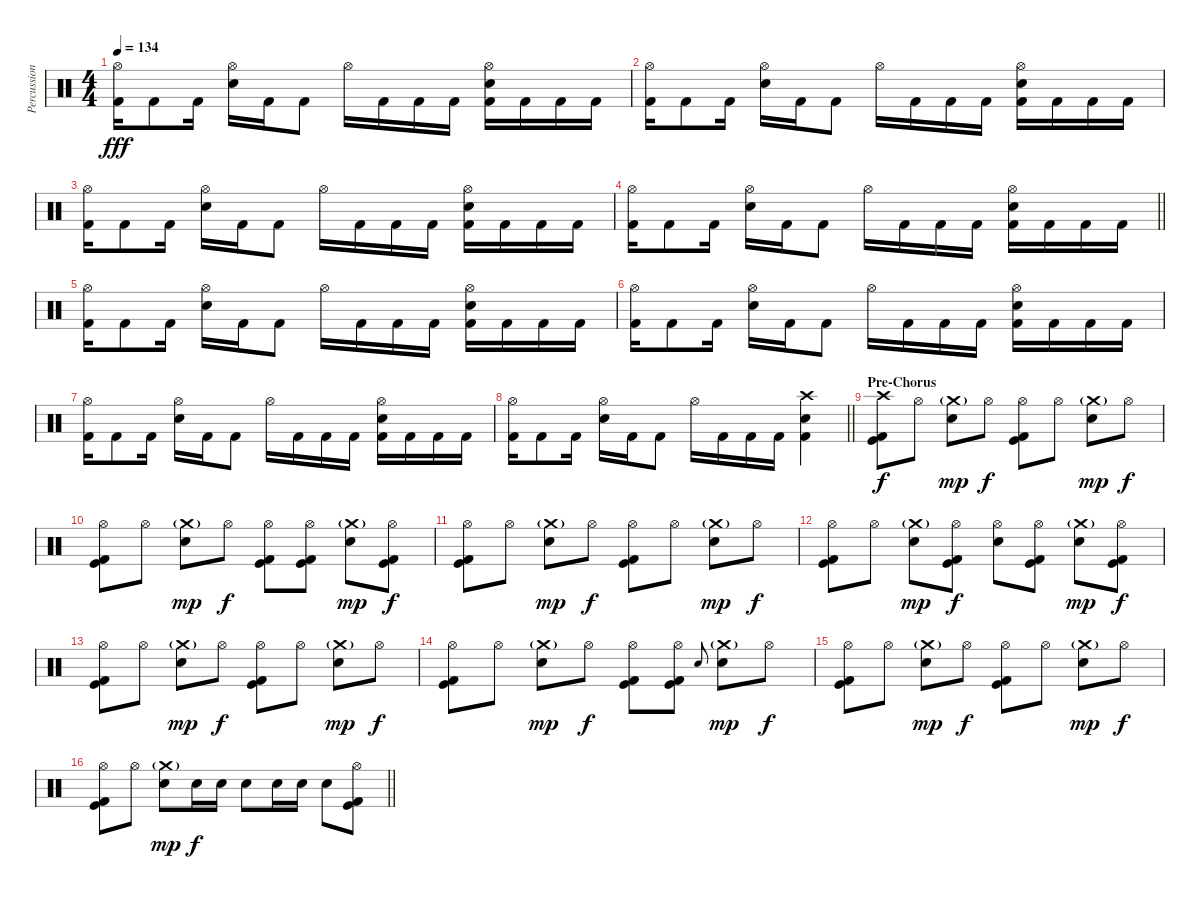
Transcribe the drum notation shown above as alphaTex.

\track ("Percussion" "Percussion") {instrument percussion}
\staff {score}
\articulation defaults
\ts (4 4)
\tempo 134
\clef neutral
\ks c
("Hi-Hat (open)" "Kick (hit) 2").16{dy fff} "Kick (hit) 2".8 "Kick (hit) 2".16 ("Hi-Hat (open)" "Electric Snare (hit)").16 "Kick (hit) 2".16 "Kick (hit) 2".8 "Hi-Hat (open)".16 "Kick (hit) 2".16 "Kick (hit) 2".16 "Kick (hit) 2".16 ("Hi-Hat (open)" "Electric Snare (hit)" "Kick (hit) 2").16 "Kick (hit) 2".16 "Kick (hit) 2".16 "Kick (hit) 2".16 |
("Hi-Hat (open)" "Kick (hit) 2").16 "Kick (hit) 2".8 "Kick (hit) 2".16 ("Hi-Hat (open)" "Electric Snare (hit)").16 "Kick (hit) 2".16 "Kick (hit) 2".8 "Hi-Hat (open)".16 "Kick (hit) 2".16 "Kick (hit) 2".16 "Kick (hit) 2".16 ("Hi-Hat (open)" "Electric Snare (hit)" "Kick (hit) 2").16 "Kick (hit) 2".16 "Kick (hit) 2".16 "Kick (hit) 2".16 |
("Hi-Hat (open)" "Kick (hit) 2").16 "Kick (hit) 2".8 "Kick (hit) 2".16 ("Hi-Hat (open)" "Electric Snare (hit)").16 "Kick (hit) 2".16 "Kick (hit) 2".8 "Hi-Hat (open)".16 "Kick (hit) 2".16 "Kick (hit) 2".16 "Kick (hit) 2".16 ("Hi-Hat (open)" "Electric Snare (hit)" "Kick (hit) 2").16 "Kick (hit) 2".16 "Kick (hit) 2".16 "Kick (hit) 2".16 |
\barLineRight lightlight
("Hi-Hat (open)" "Kick (hit) 2").16 "Kick (hit) 2".8 "Kick (hit) 2".16 ("Hi-Hat (open)" "Electric Snare (hit)").16 "Kick (hit) 2".16 "Kick (hit) 2".8 "Hi-Hat (open)".16 "Kick (hit) 2".16 "Kick (hit) 2".16 "Kick (hit) 2".16 ("Hi-Hat (open)" "Electric Snare (hit)" "Kick (hit) 2").16 "Kick (hit) 2".16 "Kick (hit) 2".16 "Kick (hit) 2".16 |
("Hi-Hat (open)" "Kick (hit) 2").16 "Kick (hit) 2".8 "Kick (hit) 2".16 ("Hi-Hat (open)" "Electric Snare (hit)").16 "Kick (hit) 2".16 "Kick (hit) 2".8 "Hi-Hat (open)".16 "Kick (hit) 2".16 "Kick (hit) 2".16 "Kick (hit) 2".16 ("Hi-Hat (open)" "Electric Snare (hit)" "Kick (hit) 2").16 "Kick (hit) 2".16 "Kick (hit) 2".16 "Kick (hit) 2".16 |
("Hi-Hat (open)" "Kick (hit) 2").16 "Kick (hit) 2".8 "Kick (hit) 2".16 ("Hi-Hat (open)" "Electric Snare (hit)").16 "Kick (hit) 2".16 "Kick (hit) 2".8 "Hi-Hat (open)".16 "Kick (hit) 2".16 "Kick (hit) 2".16 "Kick (hit) 2".16 ("Hi-Hat (open)" "Electric Snare (hit)" "Kick (hit) 2").16 "Kick (hit) 2".16 "Kick (hit) 2".16 "Kick (hit) 2".16 |
("Hi-Hat (open)" "Kick (hit) 2").16 "Kick (hit) 2".8 "Kick (hit) 2".16 ("Hi-Hat (open)" "Electric Snare (hit)").16 "Kick (hit) 2".16 "Kick (hit) 2".8 "Hi-Hat (open)".16 "Kick (hit) 2".16 "Kick (hit) 2".16 "Kick (hit) 2".16 ("Hi-Hat (open)" "Electric Snare (hit)" "Kick (hit) 2").16 "Kick (hit) 2".16 "Kick (hit) 2".16 "Kick (hit) 2".16 |
\barLineRight lightlight
("Hi-Hat (open)" "Kick (hit) 2").16 "Kick (hit) 2".8 "Kick (hit) 2".16 ("Hi-Hat (open)" "Electric Snare (hit)").16 "Kick (hit) 2".16 "Kick (hit) 2".8 "Hi-Hat (open)".16 "Kick (hit) 2".16 "Kick (hit) 2".16 "Kick (hit) 2".16 ("Crash high (hit)" "Electric Snare (hit)" "Kick (hit) 2").4 |
\section ("" "Pre-Chorus")
("Crash high (hit)" "Kick (hit)" "Kick (hit) 2").8{dy f} "Hi-Hat (open)".8 ("Crash medium (hit)"{g} "Electric Snare (hit)").8{dy mp} "Hi-Hat (open)".8{dy f} ("Hi-Hat (open)" "Kick (hit)" "Kick (hit) 2").8 "Hi-Hat (open)".8 ("Crash medium (hit)"{g} "Electric Snare (hit)").8{dy mp} "Hi-Hat (open)".8{dy f} |
("Hi-Hat (open)" "Kick (hit)" "Kick (hit) 2").8 "Hi-Hat (open)".8 ("Crash medium (hit)"{g} "Electric Snare (hit)").8{dy mp} "Hi-Hat (open)".8{dy f} ("Hi-Hat (open)" "Kick (hit)" "Kick (hit) 2").8 ("Hi-Hat (open)" "Kick (hit)" "Kick (hit) 2").8 ("Crash medium (hit)"{g} "Electric Snare (hit)").8{dy mp} ("Hi-Hat (open)" "Kick (hit)" "Kick (hit) 2").8{dy f} |
("Hi-Hat (open)" "Kick (hit)" "Kick (hit) 2").8 "Hi-Hat (open)".8 ("Crash medium (hit)"{g} "Electric Snare (hit)").8{dy mp} "Hi-Hat (open)".8{dy f} ("Hi-Hat (open)" "Kick (hit)" "Kick (hit) 2").8 "Hi-Hat (open)".8 ("Crash medium (hit)"{g} "Electric Snare (hit)").8{dy mp} "Hi-Hat (open)".8{dy f} |
("Hi-Hat (open)" "Kick (hit)" "Kick (hit) 2").8 "Hi-Hat (open)".8 ("Crash medium (hit)"{g} "Electric Snare (hit)").8{dy mp} ("Hi-Hat (open)" "Kick (hit)" "Kick (hit) 2").8{dy f} ("Hi-Hat (open)" "Electric Snare (hit)").8 ("Hi-Hat (open)" "Kick (hit)" "Kick (hit) 2").8 ("Crash medium (hit)"{g} "Electric Snare (hit)").8{dy mp} ("Hi-Hat (open)" "Kick (hit)" "Kick (hit) 2").8{dy f} |
("Hi-Hat (open)" "Kick (hit)" "Kick (hit) 2").8 "Hi-Hat (open)".8 ("Crash medium (hit)"{g} "Electric Snare (hit)").8{dy mp} "Hi-Hat (open)".8{dy f} ("Hi-Hat (open)" "Kick (hit)" "Kick (hit) 2").8 "Hi-Hat (open)".8 ("Crash medium (hit)"{g} "Electric Snare (hit)").8{dy mp} "Hi-Hat (open)".8{dy f} |
("Hi-Hat (open)" "Kick (hit)" "Kick (hit) 2").8 "Hi-Hat (open)".8 ("Crash medium (hit)"{g} "Electric Snare (hit)").8{dy mp} "Hi-Hat (open)".8{dy f} ("Hi-Hat (open)" "Kick (hit)" "Kick (hit) 2").8 ("Hi-Hat (open)" "Kick (hit)" "Kick (hit) 2").8 "Electric Snare (hit)".8{gr onbeat} ("Crash medium (hit)"{g} "Electric Snare (hit)").8{dy mp} "Hi-Hat (open)".8{dy f} |
("Hi-Hat (open)" "Kick (hit)" "Kick (hit) 2").8 "Hi-Hat (open)".8 ("Crash medium (hit)"{g} "Electric Snare (hit)").8{dy mp} "Hi-Hat (open)".8{dy f} ("Hi-Hat (open)" "Kick (hit)" "Kick (hit) 2").8 "Hi-Hat (open)".8 ("Crash medium (hit)"{g} "Electric Snare (hit)").8{dy mp} "Hi-Hat (open)".8{dy f} |
\barLineRight lightlight
("Hi-Hat (open)" "Kick (hit)" "Kick (hit) 2").8 "Hi-Hat (open)".8 ("Crash medium (hit)"{g} "Electric Snare (hit)").8{dy mp} "Electric Snare (hit)".16{dy f} "Electric Snare (hit)".16 "Electric Snare (hit)".8 "Electric Snare (hit)".16 "Electric Snare (hit)".16 "Electric Snare (hit)".8 ("Hi-Hat (open)" "Kick (hit)" "Kick (hit) 2").8
